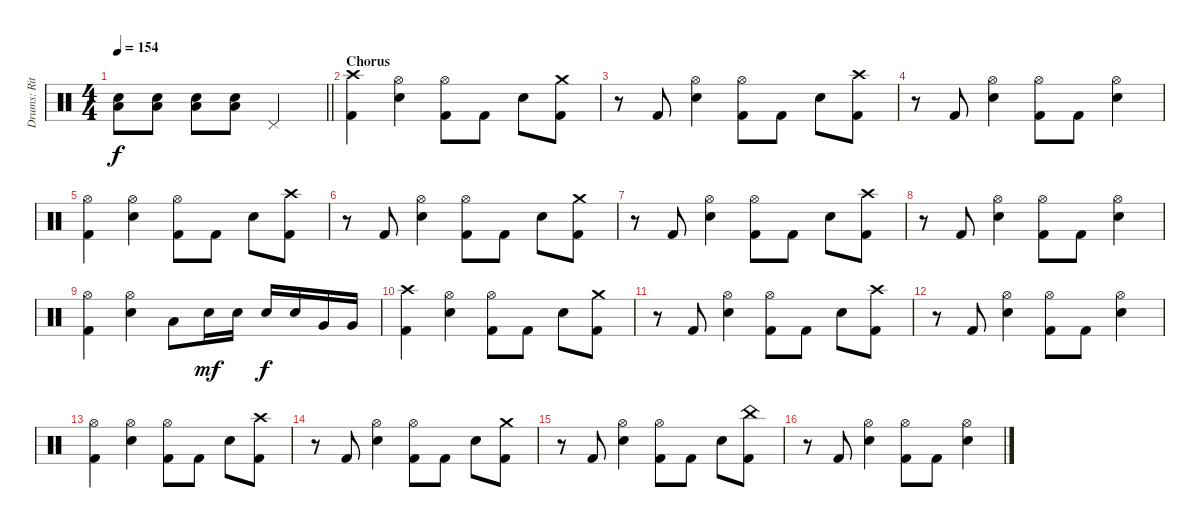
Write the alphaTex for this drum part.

\track ("Drums: Ritsu Tainaka" "Drums: Rit") {instrument percussion}
\staff {score}
\articulation defaults
\ts (4 4)
\tempo 154
\clef neutral
\barLineRight lightlight
\ks c
("Electric Snare (hit)" "Low Floor Tom (hit)").8{dy f} ("Electric Snare (hit)" "Low Floor Tom (hit)").8 ("Electric Snare (hit)" "Low Floor Tom (hit)").8 ("Electric Snare (hit)" "Low Floor Tom (hit)").8 "Pedal Hi-Hat (hit)".2 |
\section ("" "Chorus")
("Crash high (hit)" "Kick (hit) 2").4 ("Hi-Hat (open)" "Electric Snare (hit)").4 ("Hi-Hat (open)" "Kick (hit) 2").8 "Kick (hit) 2".8 "Electric Snare (hit)".8 ("Crash medium (hit)" "Kick (hit) 2").8 |
r.8 "Kick (hit) 2".8 ("Hi-Hat (open)" "Electric Snare (hit)").4 ("Hi-Hat (open)" "Kick (hit) 2").8 "Kick (hit) 2".8 "Electric Snare (hit)".8 ("Crash high (hit)" "Kick (hit) 2").8 |
r.8 "Kick (hit) 2".8 ("Hi-Hat (open)" "Electric Snare (hit)").4 ("Hi-Hat (open)" "Kick (hit) 2").8 "Kick (hit) 2".8 ("Hi-Hat (open)" "Electric Snare (hit)").4 |
("Hi-Hat (open)" "Kick (hit) 2").4 ("Hi-Hat (open)" "Electric Snare (hit)").4 ("Hi-Hat (open)" "Kick (hit) 2").8 "Kick (hit) 2".8 "Electric Snare (hit)".8 ("Crash high (hit)" "Kick (hit) 2").8 |
r.8 "Kick (hit) 2".8 ("Hi-Hat (open)" "Electric Snare (hit)").4 ("Hi-Hat (open)" "Kick (hit) 2").8 "Kick (hit) 2".8 "Electric Snare (hit)".8 ("Crash medium (hit)" "Kick (hit) 2").8 |
r.8 "Kick (hit) 2".8 ("Hi-Hat (open)" "Electric Snare (hit)").4 ("Hi-Hat (open)" "Kick (hit) 2").8 "Kick (hit) 2".8 "Electric Snare (hit)".8 ("Crash high (hit)" "Kick (hit) 2").8 |
r.8 "Kick (hit) 2".8 ("Hi-Hat (open)" "Electric Snare (hit)").4 ("Hi-Hat (open)" "Kick (hit) 2").8 "Kick (hit) 2".8 ("Hi-Hat (open)" "Electric Snare (hit)").4 |
("Hi-Hat (open)" "Kick (hit) 2").4 ("Hi-Hat (open)" "Electric Snare (hit)").4 "Low Tom (hit)".8 "Electric Snare (hit)".16{dy mf} "Electric Snare (hit)".16 "Electric Snare (hit)".16{dy f} "Electric Snare (hit)".16 "Very Low Tom (hit)".16 "Very Low Tom (hit)".16 |
("Crash high (hit)" "Kick (hit) 2").4 ("Hi-Hat (open)" "Electric Snare (hit)").4 ("Hi-Hat (open)" "Kick (hit) 2").8 "Kick (hit) 2".8 "Electric Snare (hit)".8 ("Crash medium (hit)" "Kick (hit) 2").8 |
r.8 "Kick (hit) 2".8 ("Hi-Hat (open)" "Electric Snare (hit)").4 ("Hi-Hat (open)" "Kick (hit) 2").8 "Kick (hit) 2".8 "Electric Snare (hit)".8 ("Crash high (hit)" "Kick (hit) 2").8 |
r.8 "Kick (hit) 2".8 ("Hi-Hat (open)" "Electric Snare (hit)").4 ("Hi-Hat (open)" "Kick (hit) 2").8 "Kick (hit) 2".8 ("Hi-Hat (open)" "Electric Snare (hit)").4 |
("Hi-Hat (open)" "Kick (hit) 2").4 ("Hi-Hat (open)" "Electric Snare (hit)").4 ("Hi-Hat (open)" "Kick (hit) 2").8 "Kick (hit) 2".8 "Electric Snare (hit)".8 ("Crash high (hit)" "Kick (hit) 2").8 |
r.8 "Kick (hit) 2".8 ("Hi-Hat (open)" "Electric Snare (hit)").4 ("Hi-Hat (open)" "Kick (hit) 2").8 "Kick (hit) 2".8 "Electric Snare (hit)".8 ("Crash medium (hit)" "Kick (hit) 2").8 |
r.8 "Kick (hit) 2".8 ("Hi-Hat (open)" "Electric Snare (hit)").4 ("Hi-Hat (open)" "Kick (hit) 2").8 "Kick (hit) 2".8 "Electric Snare (hit)".8 ("China (hit)" "Kick (hit) 2").8 |
r.8 "Kick (hit) 2".8 ("Hi-Hat (open)" "Electric Snare (hit)").4 ("Hi-Hat (open)" "Kick (hit) 2").8 "Kick (hit) 2".8 ("Hi-Hat (open)" "Electric Snare (hit)").4
